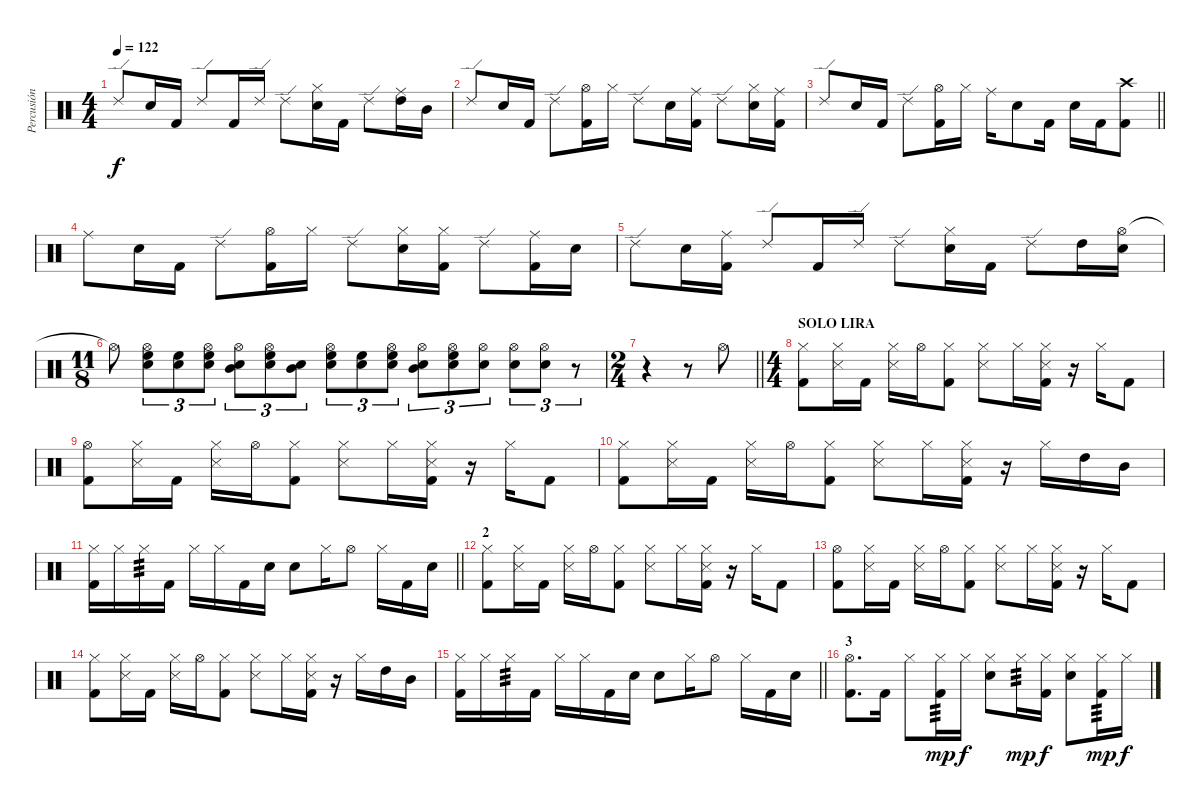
\track ("Percusión" "Percusión") {instrument percussion}
\staff {score}
\articulation defaults
\ts (4 4)
\tempo 122
\clef neutral
\ks c "Ride (edge) 2".8{dy f} "Electric Snare (hit)".16 "Kick (hit) 2".16 "Ride (edge) 2".8 "Kick (hit) 2".16 "Ride (edge) 2".16 "Ride (edge) 2".8
("Hi-Hat (closed)" "Electric Snare (hit)").16 "Kick (hit) 2".16 "Ride (edge) 2".8 ("Ride (middle)" "High Tom (hit)").16 "Mid Tom (hit)".16 |
"Ride (edge) 2".8 "Electric Snare (hit)".16 "Kick (hit) 2".16 "Ride (edge) 2".8 ("Hi-Hat (open)" "Kick (hit) 2").16 "Hi-Hat (closed)".16 "Ride (edge) 2".8 "Electric Snare (hit)".16 ("Ride (middle)" "Kick (hit) 2").16 "Ride (edge) 2".8 ("Hi-Hat (closed)" "Electric Snare (hit)").16 ("Ride (middle)" "Kick (hit) 2").16 |
\barLineRight lightlight "Ride (edge) 2".8 "Electric Snare (hit)".16 "Kick (hit) 2".16 "Ride (edge) 2".8
("Hi-Hat (open)" "Kick (hit) 2").16 "Hi-Hat (closed)".16 "Ride (middle)".16 "Electric Snare (hit)".8 "Kick (hit) 2".16 "Electric Snare (hit)".16 "Kick (hit) 2".16 ("Crash high (hit)" "Kick (hit) 2").8 |
"Ride (middle)".8 "Electric Snare (hit)".16 "Kick (hit) 2".16 "Ride (edge) 2".8 ("Hi-Hat (open)" "Kick (hit) 2").16 "Hi-Hat (closed)".16 "Ride (edge) 2".8 ("Electric Snare (hit)" "Hi-Hat (closed)").16 ("Kick (hit) 2" "Hi-Hat (closed)").16 "Ride (edge) 2".8 ("Ride (middle)" "Kick (hit) 2").16 "Electric Snare (hit)".16 |
"Ride (edge) 2".8 "Electric Snare (hit)".16 ("Ride (middle)" "Kick (hit) 2").16 "Ride (edge) 2".8 "Kick (hit) 2".16 "Ride (edge) 2".16 "Ride (edge) 2".8 ("Hi-Hat (closed)" "Electric Snare (hit)").16 "Kick (hit) 2".16 "Ride (edge) 2".8 "High Tom (hit)".16 ("Hi-Hat (open)" "Electric Snare (hit)").16 |
\ts (11 8)
"Hi-Hat (open)"{t}.8 ("High Floor Tom (hit)" "Electric Snare (hit)" "Hi-Hat (open)").8{tu (3 2)} ("High Floor Tom (hit)" "Electric Snare (hit)").8{tu (3 2)} ("High Floor Tom (hit)" "Electric Snare (hit)" "Hi-Hat (open)").8{tu (3 2)} ("Mid Tom (hit)" "Electric Snare (hit)" "Hi-Hat (open)").8{tu (3 2)} ("High Floor Tom (hit)" "Electric Snare (hit)" "Hi-Hat (open)").8{tu (3 2)} ("Mid Tom (hit)" "Electric Snare (hit)").8{tu (3 2)} ("High Floor Tom (hit)" "Electric Snare (hit)" "Hi-Hat (open)").8{tu (3 2)} ("High Floor Tom (hit)" "Electric Snare (hit)").8{tu (3 2)} ("High Floor Tom (hit)" "Electric Snare (hit)" "Hi-Hat (open)").8{tu (3 2)} ("Mid Tom (hit)" "Electric Snare (hit)" "Hi-Hat (open)").8{tu (3 2)} ("High Floor Tom (hit)" "Electric Snare (hit)" "Hi-Hat (open)").8{tu (3 2)} ("Electric Snare (hit)" "Hi-Hat (open)").8{tu (3 2)} ("Hi-Hat (open)" "Electric Snare (hit)").8{tu (3 2)} ("Hi-Hat (open)" "Electric Snare (hit)").8{tu (3 2)} r.8{tu (3 2)} |
\ts (2 4)
\barLineRight lightlight
r.4 r.8 "Hi-Hat (open)".8 |
\ts (4 4)
\section ("" "SOLO LIRA")
("Hi-Hat (closed)" "Kick (hit) 2").8 ("Hi-Hat (closed)" "Snare (side stick) 3").16 "Kick (hit) 2".16 ("Hi-Hat (closed)" "Snare (side stick) 3").16 "Hi-Hat (open)".16 ("Hi-Hat (closed)" "Kick (hit) 2").8 ("Hi-Hat (closed)" "Snare (side stick) 3").8 "Hi-Hat (closed)".16 ("Snare (side stick) 3" "Hi-Hat (closed)" "Kick (hit) 2").16 r.16 "Hi-Hat (closed)".16 "Kick (hit) 2".8 |
("Hi-Hat (open)" "Kick (hit) 2").8 ("Hi-Hat (closed)" "Snare (side stick) 3").16 "Kick (hit) 2".16 ("Hi-Hat (closed)" "Snare (side stick) 3").16 "Hi-Hat (open)".16 ("Hi-Hat (closed)" "Kick (hit) 2").8 ("Hi-Hat (closed)" "Snare (side stick) 3").8 "Hi-Hat (closed)".16 ("Snare (side stick) 3" "Hi-Hat (closed)" "Kick (hit) 2").16 r.16 "Hi-Hat (closed)".16 "Kick (hit) 2".8 |
("Hi-Hat (closed)" "Kick (hit) 2").8 ("Hi-Hat (closed)" "Snare (side stick) 3").16 "Kick (hit) 2".16 ("Hi-Hat (closed)" "Snare (side stick) 3").16 "Hi-Hat (open)".16 ("Hi-Hat (closed)" "Kick (hit) 2").8 ("Hi-Hat (closed)" "Snare (side stick) 3").8 "Hi-Hat (closed)".16 ("Snare (side stick) 3" "Hi-Hat (closed)" "Kick (hit) 2").16 r.16 "Hi-Hat (closed)".16 "High Tom (hit)".16 "Mid Tom (hit)".16 |
\barLineRight lightlight
("Hi-Hat (closed)" "Kick (hit) 2").16 "Hi-Hat (closed)".16 "Hi-Hat (closed)".16{tp 3} "Kick (hit) 2".16 "Hi-Hat (closed)".16 "Hi-Hat (closed)".16 "Kick (hit) 2".16 "Electric Snare (hit)".16 "Electric Snare (hit)".8 "Hi-Hat (closed)".16 "Hi-Hat (open)".8 "Hi-Hat (closed)".16 "Kick (hit) 2".16 "Electric Snare (hit)".16 |
\section ("" "2")
("Hi-Hat (closed)" "Kick (hit) 2").8 ("Hi-Hat (closed)" "Snare (side stick) 3").16 "Kick (hit) 2".16 ("Hi-Hat (closed)" "Snare (side stick) 3").16 "Hi-Hat (open)".16 ("Hi-Hat (closed)" "Kick (hit) 2").8 ("Hi-Hat (closed)" "Snare (side stick) 3").8 "Hi-Hat (closed)".16 ("Snare (side stick) 3" "Hi-Hat (closed)" "Kick (hit) 2").16 r.16 "Hi-Hat (closed)".16 "Kick (hit) 2".8 |
("Hi-Hat (open)" "Kick (hit) 2").8 ("Hi-Hat (closed)" "Snare (side stick) 3").16 "Kick (hit) 2".16 ("Hi-Hat (closed)" "Snare (side stick) 3").16 "Hi-Hat (open)".16 ("Hi-Hat (closed)" "Kick (hit) 2").8 ("Hi-Hat (closed)" "Snare (side stick) 3").8 "Hi-Hat (closed)".16 ("Snare (side stick) 3" "Hi-Hat (closed)" "Kick (hit) 2").16 r.16 "Hi-Hat (closed)".16 "Kick (hit) 2".8 |
("Hi-Hat (closed)" "Kick (hit) 2").8 ("Hi-Hat (closed)" "Snare (side stick) 3").16 "Kick (hit) 2".16 ("Hi-Hat (closed)" "Snare (side stick) 3").16 "Hi-Hat (open)".16 ("Hi-Hat (closed)" "Kick (hit) 2").8 ("Hi-Hat (closed)" "Snare (side stick) 3").8 "Hi-Hat (closed)".16 ("Snare (side stick) 3" "Hi-Hat (closed)" "Kick (hit) 2").16 r.16 "Hi-Hat (closed)".16 "High Tom (hit)".16 "Mid Tom (hit)".16 |
\barLineRight lightlight
("Hi-Hat (closed)" "Kick (hit) 2").16 "Hi-Hat (closed)".16 "Hi-Hat (closed)".16{tp 3} "Kick (hit) 2".16 "Hi-Hat (closed)".16 "Hi-Hat (closed)".16 "Kick (hit) 2".16 "Electric Snare (hit)".16 "Electric Snare (hit)".8 "Hi-Hat (closed)".16 "Hi-Hat (open)".8 "Hi-Hat (closed)".16 "Kick (hit) 2".16 "Electric Snare (hit)".16 |
\section ("" "3")
("Hi-Hat (open)" "Kick (hit) 2").8{d} "Kick (hit) 2".16 "Hi-Hat (closed)".8 ("Kick (hit) 2" "Hi-Hat (closed)").16{tp 3 dy mp} "Hi-Hat (closed)".16{dy f} ("Electric Snare (hit)" "Hi-Hat (closed)").8 "Hi-Hat (closed)".16{tp 3 dy mp} ("Kick (hit) 2" "Hi-Hat (closed)").16{dy f} ("Electric Snare (hit)" "Hi-Hat (closed)").8 ("Kick (hit) 2" "Hi-Hat (closed)").16{tp 3 dy mp} "Hi-Hat (closed)".16{dy f}
